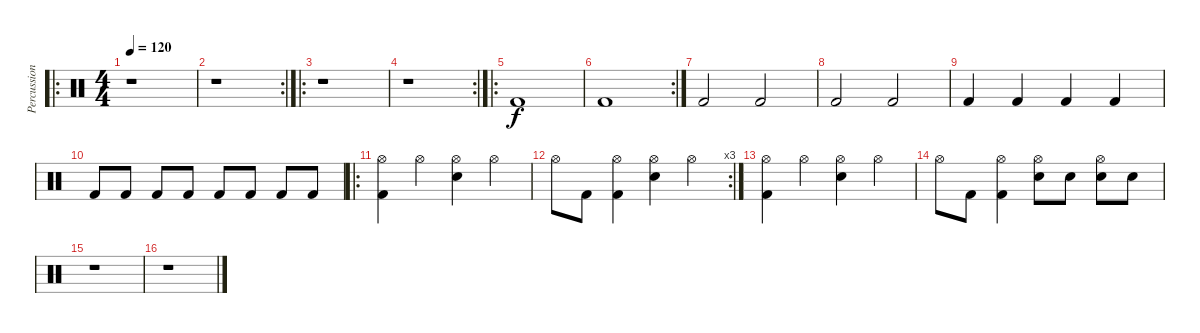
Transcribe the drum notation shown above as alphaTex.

\track ("Percussion" "Percussion") {instrument percussion}
\staff {score}
\articulation defaults
\ro
\ts (4 4)
\tempo 120
\clef neutral
\ks c
r.1{dy f} |
\rc 2
r.1 |
\ro
r.1 |
\rc 2
r.1 |
\ro "Kick (hit) 2".1
|
\rc 2 "Kick (hit) 2".1
|
"Kick (hit) 2".2 "Kick (hit) 2".2 |
"Kick (hit) 2".2 "Kick (hit) 2".2 |
"Kick (hit) 2".4 "Kick (hit) 2".4 "Kick (hit) 2".4 "Kick (hit) 2".4 |
"Kick (hit) 2".8 "Kick (hit) 2".8 "Kick (hit) 2".8 "Kick (hit) 2".8 "Kick (hit) 2".8 "Kick (hit) 2".8 "Kick (hit) 2".8 "Kick (hit) 2".8 |
\ro
("Kick (hit) 2" "Hi-Hat (open)").4 "Hi-Hat (open)".4 ("Electric Snare (hit)" "Hi-Hat (open)").4 "Hi-Hat (open)".4 |
\rc 3 "Hi-Hat (open)".8 "Kick (hit) 2".8
("Kick (hit) 2" "Hi-Hat (open)").4 ("Electric Snare (hit)" "Hi-Hat (open)").4 "Hi-Hat (open)".4 |
("Kick (hit) 2" "Hi-Hat (open)").4 "Hi-Hat (open)".4 ("Electric Snare (hit)" "Hi-Hat (open)").4 "Hi-Hat (open)".4 |
"Hi-Hat (open)".8 "Kick (hit) 2".8 ("Kick (hit) 2" "Hi-Hat (open)").4 ("Electric Snare (hit)" "Hi-Hat (open)").8 "Electric Snare (hit)".8 ("Electric Snare (hit)" "Hi-Hat (open)").8 "Electric Snare (hit)".8 |
r.1 |
r.1
